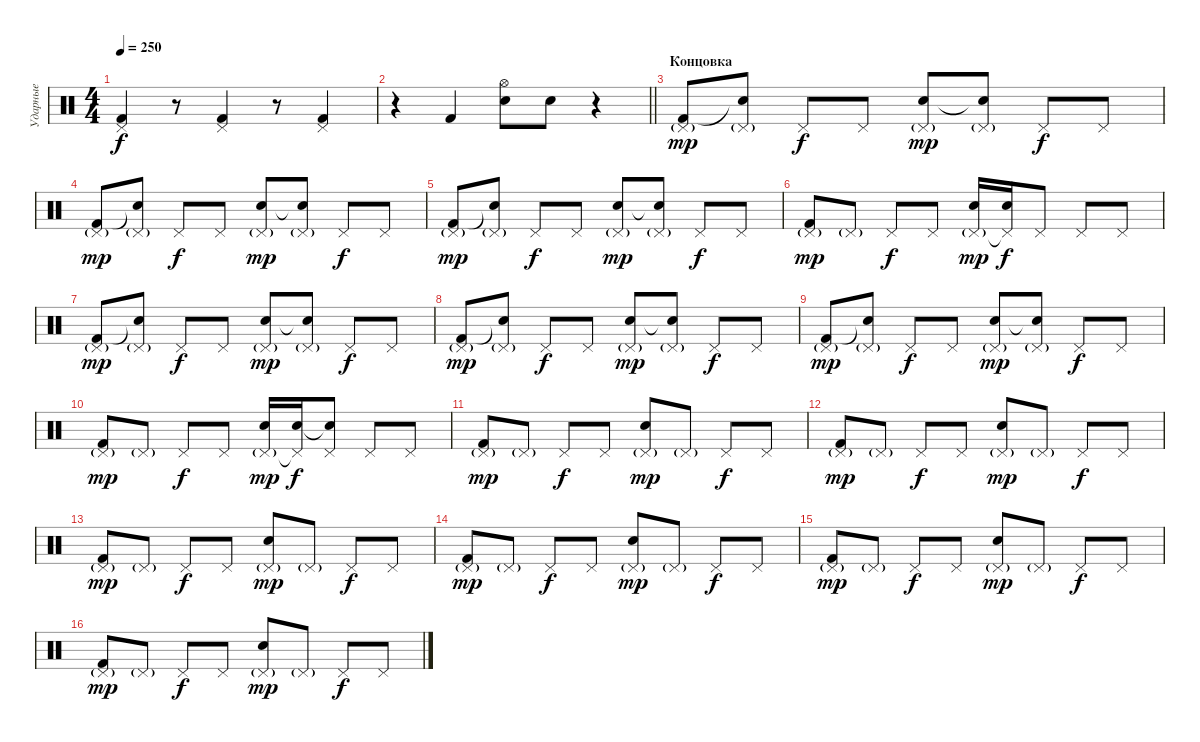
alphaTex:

\track ("Ударные" "Ударные") {instrument percussion}
\staff {score}
\articulation defaults
\ts (4 4)
\tempo 250
\clef neutral
\ks c
("Kick (hit) 2" "Pedal Hi-Hat (hit)").4{dy f} r.8 ("Kick (hit) 2" "Pedal Hi-Hat (hit)").4 r.8 ("Kick (hit) 2" "Pedal Hi-Hat (hit)").4 |
\barLineRight lightlight
r.4 "Kick (hit) 2".4 ("Electric Snare (hit)" "Hi-Hat (open)").8 "Electric Snare (hit)".8 r.4 |
\section ("" "Концовка")
("Pedal Hi-Hat (hit)"{g} "Kick (hit) 2").8{dy mp} ("Pedal Hi-Hat (hit)"{g} "Snare (hit)"{t}).8 "Pedal Hi-Hat (hit)".8{dy f} "Pedal Hi-Hat (hit)".8 ("Pedal Hi-Hat (hit)"{g} "Electric Snare (hit)").8{dy mp} ("Pedal Hi-Hat (hit)"{g} "Snare (hit)"{t}).8 "Pedal Hi-Hat (hit)".8{dy f} "Pedal Hi-Hat (hit)".8 |
("Pedal Hi-Hat (hit)"{g} "Kick (hit) 2").8{dy mp} ("Pedal Hi-Hat (hit)"{g} "Snare (hit)"{t}).8 "Pedal Hi-Hat (hit)".8{dy f} "Pedal Hi-Hat (hit)".8 ("Pedal Hi-Hat (hit)"{g} "Electric Snare (hit)").8{dy mp} ("Pedal Hi-Hat (hit)"{g} "Snare (hit)"{t}).8 "Pedal Hi-Hat (hit)".8{dy f} "Pedal Hi-Hat (hit)".8 |
("Pedal Hi-Hat (hit)"{g} "Kick (hit) 2").8{dy mp} ("Pedal Hi-Hat (hit)"{g} "Snare (hit)"{t}).8 "Pedal Hi-Hat (hit)".8{dy f} "Pedal Hi-Hat (hit)".8 ("Pedal Hi-Hat (hit)"{g} "Electric Snare (hit)").8{dy mp} ("Pedal Hi-Hat (hit)"{g} "Snare (hit)"{t}).8 "Pedal Hi-Hat (hit)".8{dy f} "Pedal Hi-Hat (hit)".8 |
("Pedal Hi-Hat (hit)"{g} "Kick (hit) 2").8{dy mp} "Pedal Hi-Hat (hit)"{g}.8 "Pedal Hi-Hat (hit)".8{dy f} "Pedal Hi-Hat (hit)".8 ("Pedal Hi-Hat (hit)"{g} "Electric Snare (hit)").16{dy mp} ("Pedal Hi-Hat (hit)"{t} "Electric Snare (hit)").16{dy f} "Pedal Hi-Hat (hit)".8 "Pedal Hi-Hat (hit)".8 "Pedal Hi-Hat (hit)".8 |
("Pedal Hi-Hat (hit)"{g} "Kick (hit) 2").8{dy mp} ("Pedal Hi-Hat (hit)"{g} "Snare (hit)"{t}).8 "Pedal Hi-Hat (hit)".8{dy f} "Pedal Hi-Hat (hit)".8 ("Pedal Hi-Hat (hit)"{g} "Electric Snare (hit)").8{dy mp} ("Pedal Hi-Hat (hit)"{g} "Snare (hit)"{t}).8 "Pedal Hi-Hat (hit)".8{dy f} "Pedal Hi-Hat (hit)".8 |
("Pedal Hi-Hat (hit)"{g} "Kick (hit) 2").8{dy mp} ("Pedal Hi-Hat (hit)"{g} "Snare (hit)"{t}).8 "Pedal Hi-Hat (hit)".8{dy f} "Pedal Hi-Hat (hit)".8 ("Pedal Hi-Hat (hit)"{g} "Electric Snare (hit)").8{dy mp} ("Pedal Hi-Hat (hit)"{g} "Snare (hit)"{t}).8 "Pedal Hi-Hat (hit)".8{dy f} "Pedal Hi-Hat (hit)".8 |
("Pedal Hi-Hat (hit)"{g} "Kick (hit) 2").8{dy mp} ("Pedal Hi-Hat (hit)"{g} "Snare (hit)"{t}).8 "Pedal Hi-Hat (hit)".8{dy f} "Pedal Hi-Hat (hit)".8 ("Pedal Hi-Hat (hit)"{g} "Electric Snare (hit)").8{dy mp} ("Pedal Hi-Hat (hit)"{g} "Snare (hit)"{t}).8 "Pedal Hi-Hat (hit)".8{dy f} "Pedal Hi-Hat (hit)".8 |
("Pedal Hi-Hat (hit)"{g} "Kick (hit) 2").8{dy mp} "Pedal Hi-Hat (hit)"{g}.8 "Pedal Hi-Hat (hit)".8{dy f} "Pedal Hi-Hat (hit)".8 ("Pedal Hi-Hat (hit)"{g} "Electric Snare (hit)").16{dy mp} ("Pedal Hi-Hat (hit)"{t} "Electric Snare (hit)").16{dy f} ("Pedal Hi-Hat (hit)" "Snare (hit)"{t}).8 "Pedal Hi-Hat (hit)".8 "Pedal Hi-Hat (hit)".8 |
("Pedal Hi-Hat (hit)"{g} "Kick (hit) 2").8{dy mp} "Pedal Hi-Hat (hit)"{g}.8 "Pedal Hi-Hat (hit)".8{dy f} "Pedal Hi-Hat (hit)".8 ("Pedal Hi-Hat (hit)"{g} "Electric Snare (hit)").8{dy mp} "Pedal Hi-Hat (hit)"{g}.8 "Pedal Hi-Hat (hit)".8{dy f} "Pedal Hi-Hat (hit)".8 |
("Pedal Hi-Hat (hit)"{g} "Kick (hit) 2").8{dy mp} "Pedal Hi-Hat (hit)"{g}.8 "Pedal Hi-Hat (hit)".8{dy f} "Pedal Hi-Hat (hit)".8 ("Pedal Hi-Hat (hit)"{g} "Electric Snare (hit)").8{dy mp} "Pedal Hi-Hat (hit)"{g}.8 "Pedal Hi-Hat (hit)".8{dy f} "Pedal Hi-Hat (hit)".8 |
("Pedal Hi-Hat (hit)"{g} "Kick (hit) 2").8{dy mp} "Pedal Hi-Hat (hit)"{g}.8 "Pedal Hi-Hat (hit)".8{dy f} "Pedal Hi-Hat (hit)".8 ("Pedal Hi-Hat (hit)"{g} "Electric Snare (hit)").8{dy mp} "Pedal Hi-Hat (hit)"{g}.8 "Pedal Hi-Hat (hit)".8{dy f} "Pedal Hi-Hat (hit)".8 |
("Pedal Hi-Hat (hit)"{g} "Kick (hit) 2").8{dy mp} "Pedal Hi-Hat (hit)"{g}.8 "Pedal Hi-Hat (hit)".8{dy f} "Pedal Hi-Hat (hit)".8 ("Pedal Hi-Hat (hit)"{g} "Electric Snare (hit)").8{dy mp} "Pedal Hi-Hat (hit)"{g}.8 "Pedal Hi-Hat (hit)".8{dy f} "Pedal Hi-Hat (hit)".8 |
("Pedal Hi-Hat (hit)"{g} "Kick (hit) 2").8{dy mp} "Pedal Hi-Hat (hit)"{g}.8 "Pedal Hi-Hat (hit)".8{dy f} "Pedal Hi-Hat (hit)".8 ("Pedal Hi-Hat (hit)"{g} "Electric Snare (hit)").8{dy mp} "Pedal Hi-Hat (hit)"{g}.8 "Pedal Hi-Hat (hit)".8{dy f} "Pedal Hi-Hat (hit)".8 |
("Pedal Hi-Hat (hit)"{g} "Kick (hit) 2").8{dy mp} "Pedal Hi-Hat (hit)"{g}.8 "Pedal Hi-Hat (hit)".8{dy f} "Pedal Hi-Hat (hit)".8 ("Pedal Hi-Hat (hit)"{g} "Electric Snare (hit)").8{dy mp} "Pedal Hi-Hat (hit)"{g}.8 "Pedal Hi-Hat (hit)".8{dy f} "Pedal Hi-Hat (hit)".8
